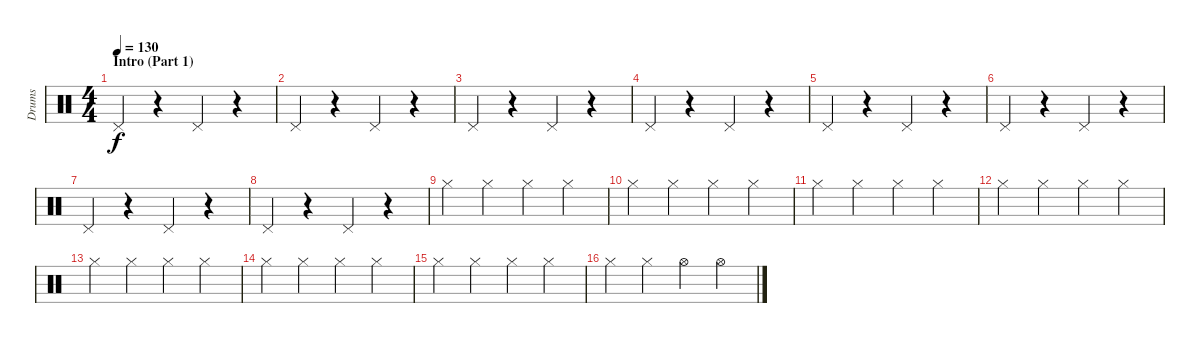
\track ("Drums" "Drums") {instrument percussion}
\staff {score}
\articulation defaults
\ts (4 4)
\section ("" "Intro (Part 1)")
\tempo 130
\clef neutral
\ks c "Pedal Hi-Hat (hit)".4{dy f}
r.4 "Pedal Hi-Hat (hit)".4 r.4 |
"Pedal Hi-Hat (hit)".4 r.4 "Pedal Hi-Hat (hit)".4 r.4 |
"Pedal Hi-Hat (hit)".4 r.4 "Pedal Hi-Hat (hit)".4 r.4 |
"Pedal Hi-Hat (hit)".4 r.4 "Pedal Hi-Hat (hit)".4 r.4 |
"Pedal Hi-Hat (hit)".4 r.4 "Pedal Hi-Hat (hit)".4 r.4 |
"Pedal Hi-Hat (hit)".4 r.4 "Pedal Hi-Hat (hit)".4 r.4 |
"Pedal Hi-Hat (hit)".4 r.4 "Pedal Hi-Hat (hit)".4 r.4 |
"Pedal Hi-Hat (hit)".4 r.4 "Pedal Hi-Hat (hit)".4 r.4 |
"Hi-Hat (closed)".4 "Hi-Hat (closed)".4 "Hi-Hat (closed)".4 "Hi-Hat (closed)".4 |
"Hi-Hat (closed)".4 "Hi-Hat (closed)".4 "Hi-Hat (closed)".4 "Hi-Hat (closed)".4 |
"Hi-Hat (closed)".4 "Hi-Hat (closed)".4 "Hi-Hat (closed)".4 "Hi-Hat (closed)".4 |
"Hi-Hat (closed)".4 "Hi-Hat (closed)".4 "Hi-Hat (closed)".4 "Hi-Hat (closed)".4 |
"Hi-Hat (closed)".4 "Hi-Hat (closed)".4 "Hi-Hat (closed)".4 "Hi-Hat (closed)".4 |
"Hi-Hat (closed)".4 "Hi-Hat (closed)".4 "Hi-Hat (closed)".4 "Hi-Hat (closed)".4 |
"Hi-Hat (closed)".4 "Hi-Hat (closed)".4 "Hi-Hat (closed)".4 "Hi-Hat (closed)".4 |
"Hi-Hat (closed)".4 "Hi-Hat (closed)".4 "Hi-Hat (open)".4 "Hi-Hat (open)".4
